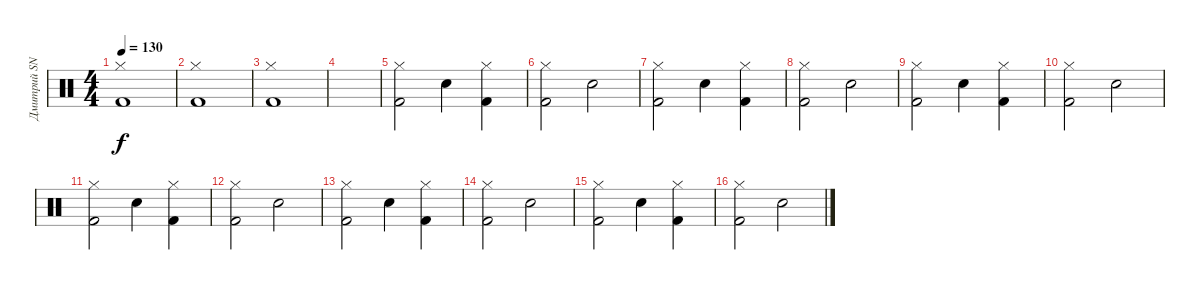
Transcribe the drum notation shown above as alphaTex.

\track ("Дмитрий SNAKE Хакимов" "Дмитрий SN") {instrument percussion}
\staff {score}
\articulation defaults
\ts (4 4)
\tempo 130
\clef neutral
\ks c
("Hi-Hat (closed)" "Kick (hit) 2").1{dy f} |
("Hi-Hat (closed)" "Kick (hit) 2").1 |
("Hi-Hat (closed)" "Kick (hit) 2").1 |
|
("Hi-Hat (closed)" "Kick (hit) 2").2 "Hand Clap (hit)".4 ("Hi-Hat (closed)" "Kick (hit) 2").4 |
("Hi-Hat (closed)" "Kick (hit) 2").2 "Hand Clap (hit)".2 |
("Hi-Hat (closed)" "Kick (hit) 2").2 "Hand Clap (hit)".4 ("Hi-Hat (closed)" "Kick (hit) 2").4 |
("Hi-Hat (closed)" "Kick (hit) 2").2 "Hand Clap (hit)".2 |
("Hi-Hat (closed)" "Kick (hit) 2").2 "Hand Clap (hit)".4 ("Hi-Hat (closed)" "Kick (hit) 2").4 |
("Hi-Hat (closed)" "Kick (hit) 2").2 "Hand Clap (hit)".2 |
("Hi-Hat (closed)" "Kick (hit) 2").2 "Hand Clap (hit)".4 ("Hi-Hat (closed)" "Kick (hit) 2").4 |
("Hi-Hat (closed)" "Kick (hit) 2").2 "Hand Clap (hit)".2 |
("Hi-Hat (closed)" "Kick (hit) 2").2 "Hand Clap (hit)".4 ("Hi-Hat (closed)" "Kick (hit) 2").4 |
("Hi-Hat (closed)" "Kick (hit) 2").2 "Hand Clap (hit)".2 |
("Hi-Hat (closed)" "Kick (hit) 2").2 "Hand Clap (hit)".4 ("Hi-Hat (closed)" "Kick (hit) 2").4 |
("Hi-Hat (closed)" "Kick (hit) 2").2 "Hand Clap (hit)".2
